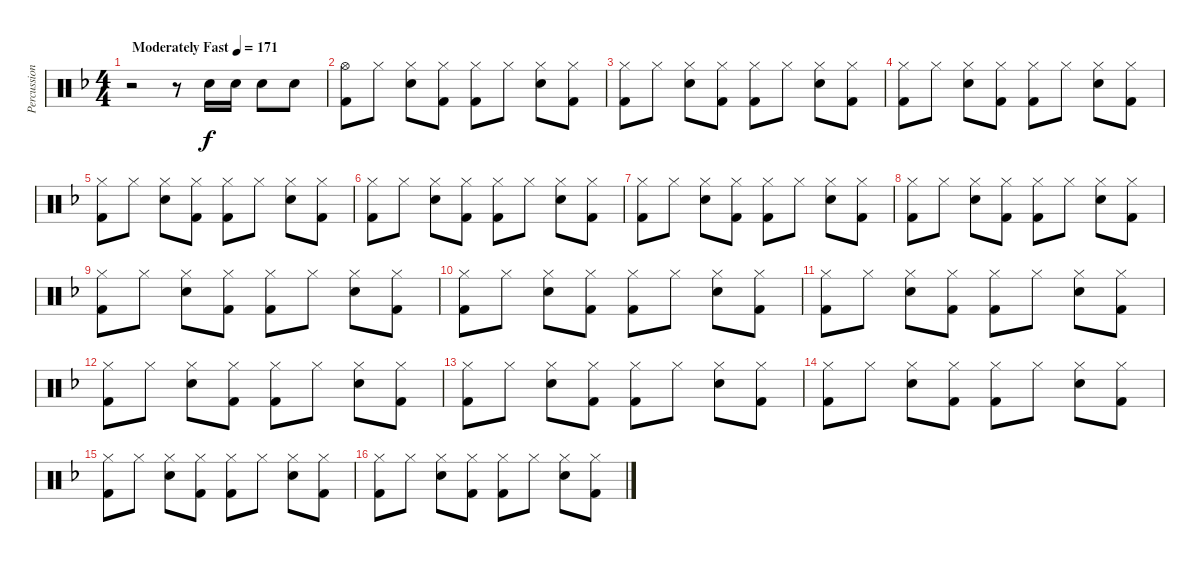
\track ("Percussion" "Percussion") {instrument percussion}
\staff {score}
\articulation defaults
\ts (4 4)
\tempo (171 "Moderately Fast")
\clef neutral
\ks f
r.2{dy f} r.8 "Snare (hit) 2".16 "Snare (hit) 2".16 "Snare (hit) 2".8 "Snare (hit) 2".8 |
("Hi-Hat (open)" "Kick (hit) 2").8 "Hi-Hat (closed)".8 ("Hi-Hat (closed)" "Snare (hit) 2").8 ("Hi-Hat (closed)" "Kick (hit) 2").8 ("Hi-Hat (closed)" "Kick (hit) 2").8 "Hi-Hat (closed)".8 ("Hi-Hat (closed)" "Snare (hit) 2").8 ("Hi-Hat (closed)" "Kick (hit) 2").8 |
("Hi-Hat (closed)" "Kick (hit) 2").8 "Hi-Hat (closed)".8 ("Hi-Hat (closed)" "Snare (hit) 2").8 ("Hi-Hat (closed)" "Kick (hit) 2").8 ("Hi-Hat (closed)" "Kick (hit) 2").8 "Hi-Hat (closed)".8 ("Hi-Hat (closed)" "Snare (hit) 2").8 ("Hi-Hat (closed)" "Kick (hit) 2").8 |
("Hi-Hat (closed)" "Kick (hit) 2").8 "Hi-Hat (closed)".8 ("Hi-Hat (closed)" "Snare (hit) 2").8 ("Hi-Hat (closed)" "Kick (hit) 2").8 ("Hi-Hat (closed)" "Kick (hit) 2").8 "Hi-Hat (closed)".8 ("Hi-Hat (closed)" "Snare (hit) 2").8 ("Hi-Hat (closed)" "Kick (hit) 2").8 |
("Hi-Hat (closed)" "Kick (hit) 2").8 "Hi-Hat (closed)".8 ("Hi-Hat (closed)" "Snare (hit) 2").8 ("Hi-Hat (closed)" "Kick (hit) 2").8 ("Hi-Hat (closed)" "Kick (hit) 2").8 "Hi-Hat (closed)".8 ("Hi-Hat (closed)" "Snare (hit) 2").8 ("Hi-Hat (closed)" "Kick (hit) 2").8 |
("Hi-Hat (closed)" "Kick (hit) 2").8 "Hi-Hat (closed)".8 ("Hi-Hat (closed)" "Snare (hit) 2").8 ("Hi-Hat (closed)" "Kick (hit) 2").8 ("Hi-Hat (closed)" "Kick (hit) 2").8 "Hi-Hat (closed)".8 ("Hi-Hat (closed)" "Snare (hit) 2").8 ("Hi-Hat (closed)" "Kick (hit) 2").8 |
("Hi-Hat (closed)" "Kick (hit) 2").8 "Hi-Hat (closed)".8 ("Hi-Hat (closed)" "Snare (hit) 2").8 ("Hi-Hat (closed)" "Kick (hit) 2").8 ("Hi-Hat (closed)" "Kick (hit) 2").8 "Hi-Hat (closed)".8 ("Hi-Hat (closed)" "Snare (hit) 2").8 ("Hi-Hat (closed)" "Kick (hit) 2").8 |
("Hi-Hat (closed)" "Kick (hit) 2").8 "Hi-Hat (closed)".8 ("Hi-Hat (closed)" "Snare (hit) 2").8 ("Hi-Hat (closed)" "Kick (hit) 2").8 ("Hi-Hat (closed)" "Kick (hit) 2").8 "Hi-Hat (closed)".8 ("Hi-Hat (closed)" "Snare (hit) 2").8 ("Hi-Hat (closed)" "Kick (hit) 2").8 |
("Hi-Hat (closed)" "Kick (hit) 2").8 "Hi-Hat (closed)".8 ("Hi-Hat (closed)" "Snare (hit) 2").8 ("Hi-Hat (closed)" "Kick (hit) 2").8 ("Hi-Hat (closed)" "Kick (hit) 2").8 "Hi-Hat (closed)".8 ("Hi-Hat (closed)" "Snare (hit) 2").8 ("Hi-Hat (closed)" "Kick (hit) 2").8 |
("Hi-Hat (closed)" "Kick (hit) 2").8 "Hi-Hat (closed)".8 ("Hi-Hat (closed)" "Snare (hit) 2").8 ("Hi-Hat (closed)" "Kick (hit) 2").8 ("Hi-Hat (closed)" "Kick (hit) 2").8 "Hi-Hat (closed)".8 ("Hi-Hat (closed)" "Snare (hit) 2").8 ("Hi-Hat (closed)" "Kick (hit) 2").8 |
("Hi-Hat (closed)" "Kick (hit) 2").8 "Hi-Hat (closed)".8 ("Hi-Hat (closed)" "Snare (hit) 2").8 ("Hi-Hat (closed)" "Kick (hit) 2").8 ("Hi-Hat (closed)" "Kick (hit) 2").8 "Hi-Hat (closed)".8 ("Hi-Hat (closed)" "Snare (hit) 2").8 ("Hi-Hat (closed)" "Kick (hit) 2").8 |
("Hi-Hat (closed)" "Kick (hit) 2").8 "Hi-Hat (closed)".8 ("Hi-Hat (closed)" "Snare (hit) 2").8 ("Hi-Hat (closed)" "Kick (hit) 2").8 ("Hi-Hat (closed)" "Kick (hit) 2").8 "Hi-Hat (closed)".8 ("Hi-Hat (closed)" "Snare (hit) 2").8 ("Hi-Hat (closed)" "Kick (hit) 2").8 |
("Hi-Hat (closed)" "Kick (hit) 2").8 "Hi-Hat (closed)".8 ("Hi-Hat (closed)" "Snare (hit) 2").8 ("Hi-Hat (closed)" "Kick (hit) 2").8 ("Hi-Hat (closed)" "Kick (hit) 2").8 "Hi-Hat (closed)".8 ("Hi-Hat (closed)" "Snare (hit) 2").8 ("Hi-Hat (closed)" "Kick (hit) 2").8 |
("Hi-Hat (closed)" "Kick (hit) 2").8 "Hi-Hat (closed)".8 ("Hi-Hat (closed)" "Snare (hit) 2").8 ("Hi-Hat (closed)" "Kick (hit) 2").8 ("Hi-Hat (closed)" "Kick (hit) 2").8 "Hi-Hat (closed)".8 ("Hi-Hat (closed)" "Snare (hit) 2").8 ("Hi-Hat (closed)" "Kick (hit) 2").8 |
("Hi-Hat (closed)" "Kick (hit) 2").8 "Hi-Hat (closed)".8 ("Hi-Hat (closed)" "Snare (hit) 2").8 ("Hi-Hat (closed)" "Kick (hit) 2").8 ("Hi-Hat (closed)" "Kick (hit) 2").8 "Hi-Hat (closed)".8 ("Hi-Hat (closed)" "Snare (hit) 2").8 ("Hi-Hat (closed)" "Kick (hit) 2").8 |
("Hi-Hat (closed)" "Kick (hit) 2").8 "Hi-Hat (closed)".8 ("Hi-Hat (closed)" "Snare (hit) 2").8 ("Hi-Hat (closed)" "Kick (hit) 2").8 ("Hi-Hat (closed)" "Kick (hit) 2").8 "Hi-Hat (closed)".8 ("Hi-Hat (closed)" "Snare (hit) 2").8 ("Hi-Hat (closed)" "Kick (hit) 2").8
